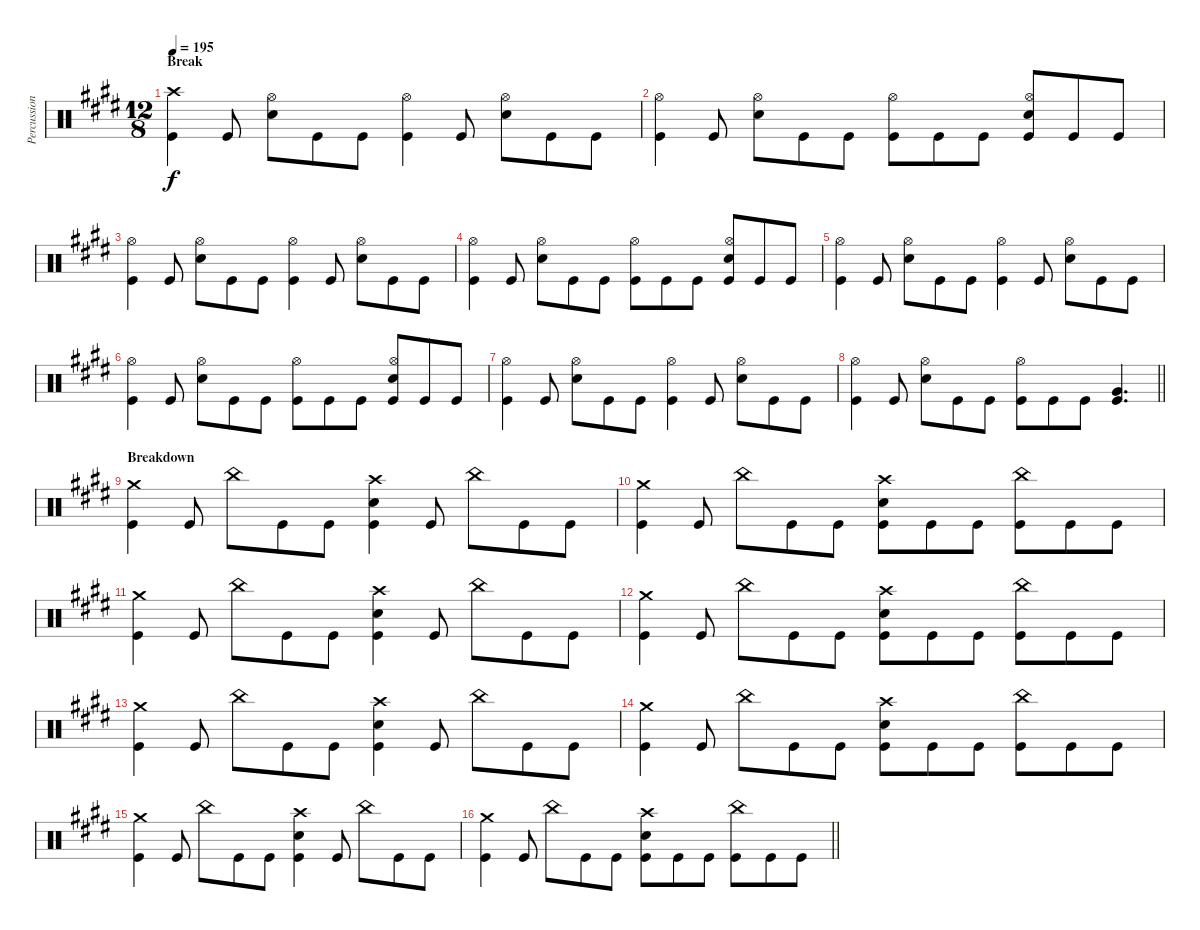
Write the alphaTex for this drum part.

\track ("Percussion" "Percussion") {instrument percussion}
\staff {score}
\articulation defaults
\ts (12 8)
\section ("" "Break")
\tempo 195
\clef neutral
\ks e
("Crash high (hit)" "Kick (hit)").4{dy f} "Kick (hit)".8 ("Hi-Hat (open)" "Electric Snare (hit)").8 "Kick (hit)".8 "Kick (hit)".8 ("Hi-Hat (open)" "Kick (hit)").4 "Kick (hit)".8 ("Hi-Hat (open)" "Electric Snare (hit)").8 "Kick (hit)".8 "Kick (hit)".8 |
("Hi-Hat (open)" "Kick (hit)").4 "Kick (hit)".8 ("Hi-Hat (open)" "Electric Snare (hit)").8 "Kick (hit)".8 "Kick (hit)".8 ("Hi-Hat (open)" "Kick (hit)").8 "Kick (hit)".8 "Kick (hit)".8 ("Hi-Hat (open)" "Electric Snare (hit)" "Kick (hit)").8 "Kick (hit)".8 "Kick (hit)".8 |
("Hi-Hat (open)" "Kick (hit)").4 "Kick (hit)".8 ("Hi-Hat (open)" "Electric Snare (hit)").8 "Kick (hit)".8 "Kick (hit)".8 ("Hi-Hat (open)" "Kick (hit)").4 "Kick (hit)".8 ("Hi-Hat (open)" "Electric Snare (hit)").8 "Kick (hit)".8 "Kick (hit)".8 |
("Hi-Hat (open)" "Kick (hit)").4 "Kick (hit)".8 ("Hi-Hat (open)" "Electric Snare (hit)").8 "Kick (hit)".8 "Kick (hit)".8 ("Hi-Hat (open)" "Kick (hit)").8 "Kick (hit)".8 "Kick (hit)".8 ("Hi-Hat (open)" "Electric Snare (hit)" "Kick (hit)").8 "Kick (hit)".8 "Kick (hit)".8 |
("Hi-Hat (open)" "Kick (hit)").4 "Kick (hit)".8 ("Hi-Hat (open)" "Electric Snare (hit)").8 "Kick (hit)".8 "Kick (hit)".8 ("Hi-Hat (open)" "Kick (hit)").4 "Kick (hit)".8 ("Hi-Hat (open)" "Electric Snare (hit)").8 "Kick (hit)".8 "Kick (hit)".8 |
("Hi-Hat (open)" "Kick (hit)").4 "Kick (hit)".8 ("Hi-Hat (open)" "Electric Snare (hit)").8 "Kick (hit)".8 "Kick (hit)".8 ("Hi-Hat (open)" "Kick (hit)").8 "Kick (hit)".8 "Kick (hit)".8 ("Hi-Hat (open)" "Electric Snare (hit)" "Kick (hit)").8 "Kick (hit)".8 "Kick (hit)".8 |
("Hi-Hat (open)" "Kick (hit)").4 "Kick (hit)".8 ("Hi-Hat (open)" "Electric Snare (hit)").8 "Kick (hit)".8 "Kick (hit)".8 ("Hi-Hat (open)" "Kick (hit)").4 "Kick (hit)".8 ("Hi-Hat (open)" "Electric Snare (hit)").8 "Kick (hit)".8 "Kick (hit)".8 |
\barLineRight lightlight
("Hi-Hat (open)" "Kick (hit)").4 "Kick (hit)".8 ("Hi-Hat (open)" "Electric Snare (hit)").8 "Kick (hit)".8 "Kick (hit)".8 ("Hi-Hat (open)" "Kick (hit)").8 "Kick (hit)".8 "Kick (hit)".8 ("Very Low Tom (hit)" "Kick (hit)").4{d} |
\section ("" "Breakdown")
("Crash medium (hit)" "Kick (hit)").4 "Kick (hit)".8 "China (hit)".8 "Kick (hit)".8 "Kick (hit)".8 ("Crash high (hit)" "Electric Snare (hit)" "Kick (hit)").4 "Kick (hit)".8 "China (hit)".8 "Kick (hit)".8 "Kick (hit)".8 |
("Crash medium (hit)" "Kick (hit)").4 "Kick (hit)".8 "China (hit)".8 "Kick (hit)".8 "Kick (hit)".8 ("Crash high (hit)" "Electric Snare (hit)" "Kick (hit)").8 "Kick (hit)".8 "Kick (hit)".8 ("China (hit)" "Kick (hit)").8 "Kick (hit)".8 "Kick (hit)".8 |
("Crash medium (hit)" "Kick (hit)").4 "Kick (hit)".8 "China (hit)".8 "Kick (hit)".8 "Kick (hit)".8 ("Crash high (hit)" "Electric Snare (hit)" "Kick (hit)").4 "Kick (hit)".8 "China (hit)".8 "Kick (hit)".8 "Kick (hit)".8 |
("Crash medium (hit)" "Kick (hit)").4 "Kick (hit)".8 "China (hit)".8 "Kick (hit)".8 "Kick (hit)".8 ("Crash high (hit)" "Electric Snare (hit)" "Kick (hit)").8 "Kick (hit)".8 "Kick (hit)".8 ("China (hit)" "Kick (hit)").8 "Kick (hit)".8 "Kick (hit)".8 |
("Crash medium (hit)" "Kick (hit)").4 "Kick (hit)".8 "China (hit)".8 "Kick (hit)".8 "Kick (hit)".8 ("Crash high (hit)" "Electric Snare (hit)" "Kick (hit)").4 "Kick (hit)".8 "China (hit)".8 "Kick (hit)".8 "Kick (hit)".8 |
("Crash medium (hit)" "Kick (hit)").4 "Kick (hit)".8 "China (hit)".8 "Kick (hit)".8 "Kick (hit)".8 ("Crash high (hit)" "Electric Snare (hit)" "Kick (hit)").8 "Kick (hit)".8 "Kick (hit)".8 ("China (hit)" "Kick (hit)").8 "Kick (hit)".8 "Kick (hit)".8 |
("Crash medium (hit)" "Kick (hit)").4 "Kick (hit)".8 "China (hit)".8 "Kick (hit)".8 "Kick (hit)".8 ("Crash high (hit)" "Electric Snare (hit)" "Kick (hit)").4 "Kick (hit)".8 "China (hit)".8 "Kick (hit)".8 "Kick (hit)".8 |
\barLineRight lightlight
("Crash medium (hit)" "Kick (hit)").4 "Kick (hit)".8 "China (hit)".8 "Kick (hit)".8 "Kick (hit)".8 ("Crash high (hit)" "Electric Snare (hit)" "Kick (hit)").8 "Kick (hit)".8 "Kick (hit)".8 ("China (hit)" "Kick (hit)").8 "Kick (hit)".8 "Kick (hit)".8
